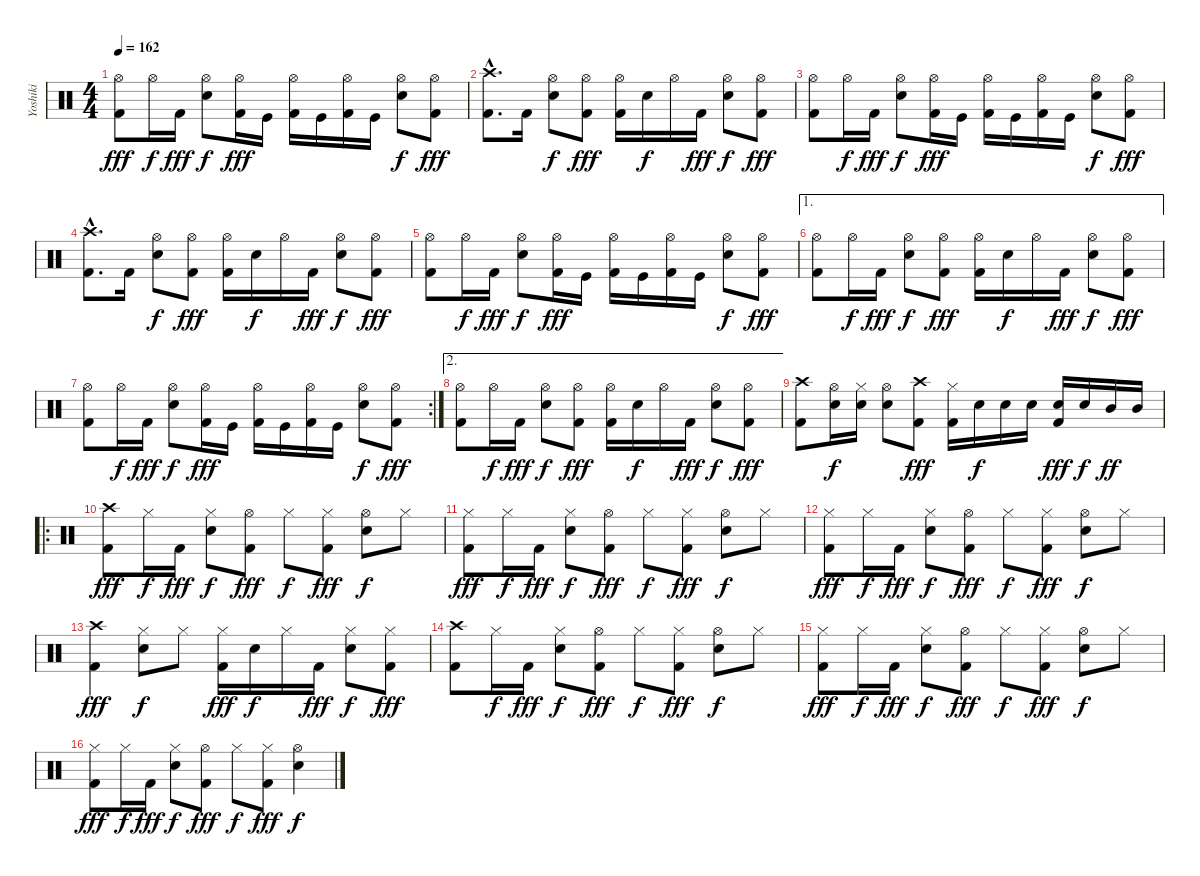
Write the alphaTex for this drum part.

\track ("Yoshiki" "Yoshiki") {instrument percussion}
\staff {score}
\articulation defaults
\ts (4 4)
\tempo 162
\clef neutral
\ks c
("Hi-Hat (open)" "Kick (hit) 2").8{dy fff} "Hi-Hat (open)".16{dy f} "Kick (hit) 2".16{dy fff} ("Hi-Hat (open)" "Electric Snare (hit)").8{dy f} ("Hi-Hat (open)" "Kick (hit) 2").16{dy fff} "Kick (hit)".16 ("Hi-Hat (open)" "Kick (hit) 2").16 "Kick (hit)".16 ("Hi-Hat (open)" "Kick (hit) 2").16 "Kick (hit)".16 ("Hi-Hat (open)" "Electric Snare (hit)").8{dy f} ("Hi-Hat (open)" "Kick (hit) 2").8{dy fff} |
("Crash high (hit)"{hac} "Kick (hit) 2"{hac}).8{d} "Kick (hit) 2".16 ("Hi-Hat (open)" "Electric Snare (hit)").8{dy f} ("Hi-Hat (open)" "Kick (hit) 2").8{dy fff} ("Hi-Hat (open)" "Kick (hit) 2").16 "Electric Snare (hit)".16{dy f} "Hi-Hat (open)".16 "Kick (hit) 2".16{dy fff} ("Hi-Hat (open)" "Electric Snare (hit)").8{dy f} ("Hi-Hat (open)" "Kick (hit) 2").8{dy fff} |
("Hi-Hat (open)" "Kick (hit) 2").8 "Hi-Hat (open)".16{dy f} "Kick (hit) 2".16{dy fff} ("Hi-Hat (open)" "Electric Snare (hit)").8{dy f} ("Hi-Hat (open)" "Kick (hit) 2").16{dy fff} "Kick (hit)".16 ("Hi-Hat (open)" "Kick (hit) 2").16 "Kick (hit)".16 ("Hi-Hat (open)" "Kick (hit) 2").16 "Kick (hit)".16 ("Hi-Hat (open)" "Electric Snare (hit)").8{dy f} ("Hi-Hat (open)" "Kick (hit) 2").8{dy fff} |
("Crash high (hit)"{hac} "Kick (hit) 2"{hac}).8{d} "Kick (hit) 2".16 ("Hi-Hat (open)" "Electric Snare (hit)").8{dy f} ("Hi-Hat (open)" "Kick (hit) 2").8{dy fff} ("Hi-Hat (open)" "Kick (hit) 2").16 "Electric Snare (hit)".16{dy f} "Hi-Hat (open)".16 "Kick (hit) 2".16{dy fff} ("Hi-Hat (open)" "Electric Snare (hit)").8{dy f} ("Hi-Hat (open)" "Kick (hit) 2").8{dy fff} |
("Hi-Hat (open)" "Kick (hit) 2").8 "Hi-Hat (open)".16{dy f} "Kick (hit) 2".16{dy fff} ("Hi-Hat (open)" "Electric Snare (hit)").8{dy f} ("Hi-Hat (open)" "Kick (hit) 2").16{dy fff} "Kick (hit)".16 ("Hi-Hat (open)" "Kick (hit) 2").16 "Kick (hit)".16 ("Hi-Hat (open)" "Kick (hit) 2").16 "Kick (hit)".16 ("Hi-Hat (open)" "Electric Snare (hit)").8{dy f} ("Hi-Hat (open)" "Kick (hit) 2").8{dy fff} |
\ae 1
("Hi-Hat (open)" "Kick (hit) 2").8 "Hi-Hat (open)".16{dy f} "Kick (hit) 2".16{dy fff} ("Hi-Hat (open)" "Electric Snare (hit)").8{dy f} ("Hi-Hat (open)" "Kick (hit) 2").8{dy fff} ("Hi-Hat (open)" "Kick (hit) 2").16 "Electric Snare (hit)".16{dy f} "Hi-Hat (open)".16 "Kick (hit) 2".16{dy fff} ("Hi-Hat (open)" "Electric Snare (hit)").8{dy f} ("Hi-Hat (open)" "Kick (hit) 2").8{dy fff} |
\rc 2
("Hi-Hat (open)" "Kick (hit) 2").8 "Hi-Hat (open)".16{dy f} "Kick (hit) 2".16{dy fff} ("Hi-Hat (open)" "Electric Snare (hit)").8{dy f} ("Hi-Hat (open)" "Kick (hit) 2").16{dy fff} "Kick (hit)".16 ("Hi-Hat (open)" "Kick (hit) 2").16 "Kick (hit)".16 ("Hi-Hat (open)" "Kick (hit) 2").16 "Kick (hit)".16 ("Hi-Hat (open)" "Electric Snare (hit)").8{dy f} ("Hi-Hat (open)" "Kick (hit) 2").8{dy fff} |
\ae 2
("Hi-Hat (open)" "Kick (hit) 2").8 "Hi-Hat (open)".16{dy f} "Kick (hit) 2".16{dy fff} ("Hi-Hat (open)" "Electric Snare (hit)").8{dy f} ("Hi-Hat (open)" "Kick (hit) 2").8{dy fff} ("Hi-Hat (open)" "Kick (hit) 2").16 "Electric Snare (hit)".16{dy f} "Hi-Hat (open)".16 "Kick (hit) 2".16{dy fff} ("Hi-Hat (open)" "Electric Snare (hit)").8{dy f} ("Hi-Hat (open)" "Kick (hit) 2").8{dy fff} |
("Crash high (hit)" "Kick (hit) 2").8 ("Hi-Hat (open)" "Electric Snare (hit)").16{dy f} ("Hi-Hat (closed)" "Electric Snare (hit)").16 ("Hi-Hat (open)" "Electric Snare (hit)").8 ("Crash high (hit)" "Kick (hit) 2").8{dy fff} ("Hi-Hat (closed)" "Kick (hit) 2").16 "Electric Snare (hit)".16{dy f} "Electric Snare (hit)".16 "Electric Snare (hit)".16 ("Electric Snare (hit)" "Kick (hit) 2").16{dy fff} "Electric Snare (hit)".16{dy f} "Mid Tom (hit)".16{dy ff} "Mid Tom (hit)".16 |
\ro
("Crash high (hit)" "Kick (hit) 2").8{dy fff} "Hi-Hat (closed)".16{dy f} "Kick (hit) 2".16{dy fff} ("Hi-Hat (closed)" "Electric Snare (hit)").8{dy f} ("Hi-Hat (open)" "Kick (hit) 2").8{dy fff} "Hi-Hat (closed)".8{dy f} ("Hi-Hat (closed)" "Kick (hit) 2").8{dy fff} ("Hi-Hat (open)" "Electric Snare (hit)").8{dy f} "Hi-Hat (closed)".8 |
("Hi-Hat (closed)" "Kick (hit) 2").8{dy fff} "Hi-Hat (closed)".16{dy f} "Kick (hit) 2".16{dy fff} ("Hi-Hat (closed)" "Electric Snare (hit)").8{dy f} ("Hi-Hat (open)" "Kick (hit) 2").8{dy fff} "Hi-Hat (closed)".8{dy f} ("Hi-Hat (closed)" "Kick (hit) 2").8{dy fff} ("Hi-Hat (open)" "Electric Snare (hit)").8{dy f} "Hi-Hat (closed)".8 |
("Hi-Hat (closed)" "Kick (hit) 2").8{dy fff} "Hi-Hat (closed)".16{dy f} "Kick (hit) 2".16{dy fff} ("Hi-Hat (closed)" "Electric Snare (hit)").8{dy f} ("Hi-Hat (open)" "Kick (hit) 2").8{dy fff} "Hi-Hat (closed)".8{dy f} ("Hi-Hat (closed)" "Kick (hit) 2").8{dy fff} ("Hi-Hat (open)" "Electric Snare (hit)").8{dy f} "Hi-Hat (closed)".8 |
("Crash high (hit)" "Kick (hit) 2").4{dy fff} ("Hi-Hat (closed)" "Electric Snare (hit)").8{dy f} "Hi-Hat (closed)".8 ("Hi-Hat (closed)" "Kick (hit) 2").16{dy fff} "Electric Snare (hit)".16{dy f} "Hi-Hat (closed)".16 "Kick (hit) 2".16{dy fff} ("Hi-Hat (closed)" "Electric Snare (hit)").8{dy f} ("Hi-Hat (closed)" "Kick (hit) 2").8{dy fff} |
("Crash high (hit)" "Kick (hit) 2").8 "Hi-Hat (closed)".16{dy f} "Kick (hit) 2".16{dy fff} ("Hi-Hat (closed)" "Electric Snare (hit)").8{dy f} ("Hi-Hat (open)" "Kick (hit) 2").8{dy fff} "Hi-Hat (closed)".8{dy f} ("Hi-Hat (closed)" "Kick (hit) 2").8{dy fff} ("Hi-Hat (open)" "Electric Snare (hit)").8{dy f} "Hi-Hat (closed)".8 |
("Hi-Hat (closed)" "Kick (hit) 2").8{dy fff} "Hi-Hat (closed)".16{dy f} "Kick (hit) 2".16{dy fff} ("Hi-Hat (closed)" "Electric Snare (hit)").8{dy f} ("Hi-Hat (open)" "Kick (hit) 2").8{dy fff} "Hi-Hat (closed)".8{dy f} ("Hi-Hat (closed)" "Kick (hit) 2").8{dy fff} ("Hi-Hat (open)" "Electric Snare (hit)").8{dy f} "Hi-Hat (closed)".8 |
("Hi-Hat (closed)" "Kick (hit) 2").8{dy fff} "Hi-Hat (closed)".16{dy f} "Kick (hit) 2".16{dy fff} ("Hi-Hat (closed)" "Electric Snare (hit)").8{dy f} ("Hi-Hat (open)" "Kick (hit) 2").8{dy fff} "Hi-Hat (closed)".8{dy f} ("Hi-Hat (closed)" "Kick (hit) 2").8{dy fff} ("Hi-Hat (open)" "Electric Snare (hit)").4{dy f}
